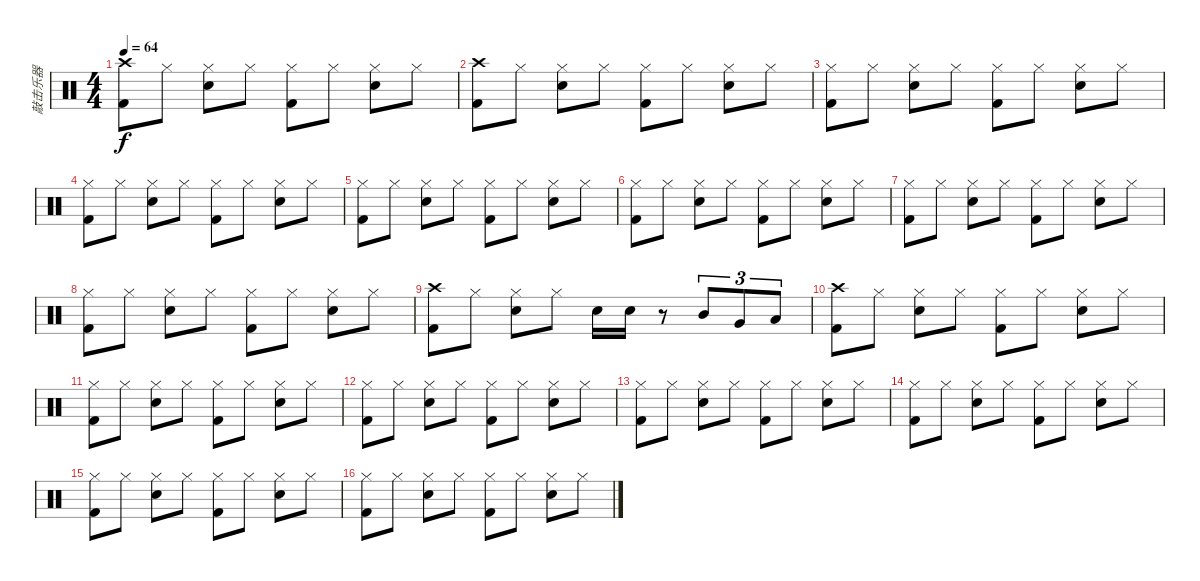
\track ("敲击乐器" "敲击乐器") {instrument percussion}
\staff {score}
\articulation defaults
\ts (4 4)
\tempo 64
\clef neutral
\ks c
("Kick (hit) 2" "Crash high (hit)").8{dy f} "Hi-Hat (closed)".8 ("Snare (hit) 2" "Hi-Hat (closed)").8 "Hi-Hat (closed)".8 ("Kick (hit) 2" "Hi-Hat (closed)").8 "Hi-Hat (closed)".8 ("Snare (hit) 2" "Hi-Hat (closed)").8 "Hi-Hat (closed)".8 |
("Kick (hit) 2" "Crash high (hit)").8 "Hi-Hat (closed)".8 ("Snare (hit) 2" "Hi-Hat (closed)").8 "Hi-Hat (closed)".8 ("Kick (hit) 2" "Hi-Hat (closed)").8 "Hi-Hat (closed)".8 ("Snare (hit) 2" "Hi-Hat (closed)").8 "Hi-Hat (closed)".8 |
("Kick (hit) 2" "Hi-Hat (closed)").8 "Hi-Hat (closed)".8 ("Snare (hit) 2" "Hi-Hat (closed)").8 "Hi-Hat (closed)".8 ("Kick (hit) 2" "Hi-Hat (closed)").8 "Hi-Hat (closed)".8 ("Snare (hit) 2" "Hi-Hat (closed)").8 "Hi-Hat (closed)".8 |
("Kick (hit) 2" "Hi-Hat (closed)").8 "Hi-Hat (closed)".8 ("Snare (hit) 2" "Hi-Hat (closed)").8 "Hi-Hat (closed)".8 ("Kick (hit) 2" "Hi-Hat (closed)").8 "Hi-Hat (closed)".8 ("Snare (hit) 2" "Hi-Hat (closed)").8 "Hi-Hat (closed)".8 |
("Kick (hit) 2" "Hi-Hat (closed)").8 "Hi-Hat (closed)".8 ("Snare (hit) 2" "Hi-Hat (closed)").8 "Hi-Hat (closed)".8 ("Kick (hit) 2" "Hi-Hat (closed)").8 "Hi-Hat (closed)".8 ("Snare (hit) 2" "Hi-Hat (closed)").8 "Hi-Hat (closed)".8 |
("Kick (hit) 2" "Hi-Hat (closed)").8 "Hi-Hat (closed)".8 ("Snare (hit) 2" "Hi-Hat (closed)").8 "Hi-Hat (closed)".8 ("Kick (hit) 2" "Hi-Hat (closed)").8 "Hi-Hat (closed)".8 ("Snare (hit) 2" "Hi-Hat (closed)").8 "Hi-Hat (closed)".8 |
("Kick (hit) 2" "Hi-Hat (closed)").8 "Hi-Hat (closed)".8 ("Snare (hit) 2" "Hi-Hat (closed)").8 "Hi-Hat (closed)".8 ("Kick (hit) 2" "Hi-Hat (closed)").8 "Hi-Hat (closed)".8 ("Snare (hit) 2" "Hi-Hat (closed)").8 "Hi-Hat (closed)".8 |
("Kick (hit) 2" "Hi-Hat (closed)").8 "Hi-Hat (closed)".8 ("Snare (hit) 2" "Hi-Hat (closed)").8 "Hi-Hat (closed)".8 ("Kick (hit) 2" "Hi-Hat (closed)").8 "Hi-Hat (closed)".8 ("Snare (hit) 2" "Hi-Hat (closed)").8 "Hi-Hat (closed)".8 |
("Kick (hit) 2" "Crash high (hit)").8 "Hi-Hat (closed)".8 ("Snare (hit) 2" "Hi-Hat (closed)").8 "Hi-Hat (closed)".8 "Snare (hit) 2".16 "Snare (hit) 2".16 r.8 "Mid Tom (hit)".8{tu (3 2)} "Very Low Tom (hit)".8{tu (3 2)} "Low Floor Tom (hit)".8{tu (3 2)} |
("Kick (hit) 2" "Crash high (hit)").8 "Hi-Hat (closed)".8 ("Snare (hit) 2" "Hi-Hat (closed)").8 "Hi-Hat (closed)".8 ("Kick (hit) 2" "Hi-Hat (closed)").8 "Hi-Hat (closed)".8 ("Snare (hit) 2" "Hi-Hat (closed)").8 "Hi-Hat (closed)".8 |
("Kick (hit) 2" "Hi-Hat (closed)").8 "Hi-Hat (closed)".8 ("Snare (hit) 2" "Hi-Hat (closed)").8 "Hi-Hat (closed)".8 ("Kick (hit) 2" "Hi-Hat (closed)").8 "Hi-Hat (closed)".8 ("Snare (hit) 2" "Hi-Hat (closed)").8 "Hi-Hat (closed)".8 |
("Kick (hit) 2" "Hi-Hat (closed)").8 "Hi-Hat (closed)".8 ("Snare (hit) 2" "Hi-Hat (closed)").8 "Hi-Hat (closed)".8 ("Kick (hit) 2" "Hi-Hat (closed)").8 "Hi-Hat (closed)".8 ("Snare (hit) 2" "Hi-Hat (closed)").8 "Hi-Hat (closed)".8 |
("Kick (hit) 2" "Hi-Hat (closed)").8 "Hi-Hat (closed)".8 ("Snare (hit) 2" "Hi-Hat (closed)").8 "Hi-Hat (closed)".8 ("Kick (hit) 2" "Hi-Hat (closed)").8 "Hi-Hat (closed)".8 ("Snare (hit) 2" "Hi-Hat (closed)").8 "Hi-Hat (closed)".8 |
("Kick (hit) 2" "Hi-Hat (closed)").8 "Hi-Hat (closed)".8 ("Snare (hit) 2" "Hi-Hat (closed)").8 "Hi-Hat (closed)".8 ("Kick (hit) 2" "Hi-Hat (closed)").8 "Hi-Hat (closed)".8 ("Snare (hit) 2" "Hi-Hat (closed)").8 "Hi-Hat (closed)".8 |
("Kick (hit) 2" "Hi-Hat (closed)").8 "Hi-Hat (closed)".8 ("Snare (hit) 2" "Hi-Hat (closed)").8 "Hi-Hat (closed)".8 ("Kick (hit) 2" "Hi-Hat (closed)").8 "Hi-Hat (closed)".8 ("Snare (hit) 2" "Hi-Hat (closed)").8 "Hi-Hat (closed)".8 |
("Kick (hit) 2" "Hi-Hat (closed)").8 "Hi-Hat (closed)".8 ("Snare (hit) 2" "Hi-Hat (closed)").8 "Hi-Hat (closed)".8 ("Kick (hit) 2" "Hi-Hat (closed)").8 "Hi-Hat (closed)".8 ("Snare (hit) 2" "Hi-Hat (closed)").8 "Hi-Hat (closed)".8
